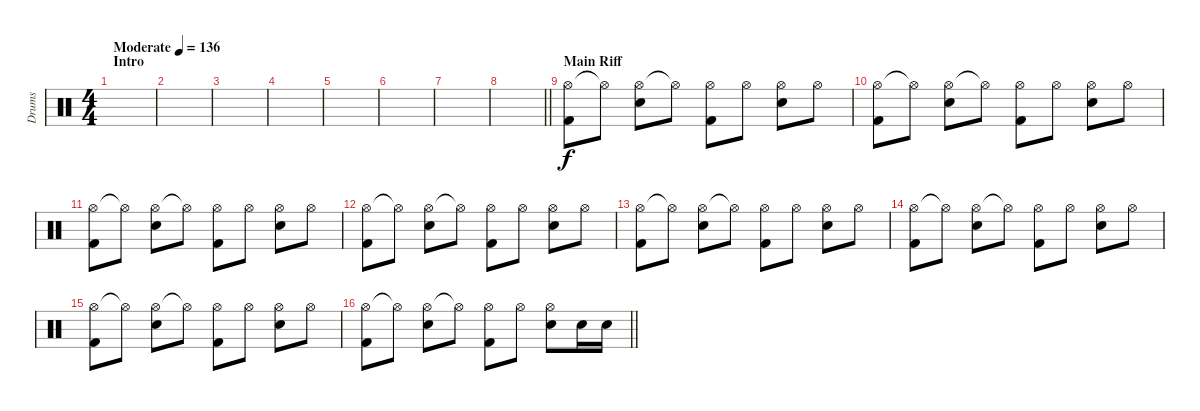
\track ("Drums" "Drums") {instrument percussion}
\staff {score}
\articulation defaults
\ts (4 4)
\section ("" "Intro")
\tempo (136 "Moderate")
\clef neutral
\ks c
|
|
|
|
|
|
|
\barLineRight lightlight
|
\section ("" "Main Riff")
("Hi-Hat (open)" "Kick (hit) 2").8 "Hi-Hat (open)"{t}.8 ("Hi-Hat (open)" "Electric Snare (hit)").8 "Hi-Hat (open)"{t}.8 ("Hi-Hat (open)" "Kick (hit) 2").8 "Hi-Hat (open)".8 ("Hi-Hat (open)" "Electric Snare (hit)").8 "Hi-Hat (open)".8 |
("Hi-Hat (open)" "Kick (hit) 2").8 "Hi-Hat (open)"{t}.8 ("Hi-Hat (open)" "Electric Snare (hit)").8 "Hi-Hat (open)"{t}.8 ("Hi-Hat (open)" "Kick (hit) 2").8 "Hi-Hat (open)".8 ("Hi-Hat (open)" "Electric Snare (hit)").8 "Hi-Hat (open)".8 |
("Hi-Hat (open)" "Kick (hit) 2").8 "Hi-Hat (open)"{t}.8 ("Hi-Hat (open)" "Electric Snare (hit)").8 "Hi-Hat (open)"{t}.8 ("Hi-Hat (open)" "Kick (hit) 2").8 "Hi-Hat (open)".8 ("Hi-Hat (open)" "Electric Snare (hit)").8 "Hi-Hat (open)".8 |
("Hi-Hat (open)" "Kick (hit) 2").8 "Hi-Hat (open)"{t}.8 ("Hi-Hat (open)" "Electric Snare (hit)").8 "Hi-Hat (open)"{t}.8 ("Hi-Hat (open)" "Kick (hit) 2").8 "Hi-Hat (open)".8 ("Hi-Hat (open)" "Electric Snare (hit)").8 "Hi-Hat (open)".8 |
("Hi-Hat (open)" "Kick (hit) 2").8 "Hi-Hat (open)"{t}.8 ("Hi-Hat (open)" "Electric Snare (hit)").8 "Hi-Hat (open)"{t}.8 ("Hi-Hat (open)" "Kick (hit) 2").8 "Hi-Hat (open)".8 ("Hi-Hat (open)" "Electric Snare (hit)").8 "Hi-Hat (open)".8 |
("Hi-Hat (open)" "Kick (hit) 2").8 "Hi-Hat (open)"{t}.8 ("Hi-Hat (open)" "Electric Snare (hit)").8 "Hi-Hat (open)"{t}.8 ("Hi-Hat (open)" "Kick (hit) 2").8 "Hi-Hat (open)".8 ("Hi-Hat (open)" "Electric Snare (hit)").8 "Hi-Hat (open)".8 |
("Hi-Hat (open)" "Kick (hit) 2").8 "Hi-Hat (open)"{t}.8 ("Hi-Hat (open)" "Electric Snare (hit)").8 "Hi-Hat (open)"{t}.8 ("Hi-Hat (open)" "Kick (hit) 2").8 "Hi-Hat (open)".8 ("Hi-Hat (open)" "Electric Snare (hit)").8 "Hi-Hat (open)".8 |
\barLineRight lightlight
("Hi-Hat (open)" "Kick (hit) 2").8 "Hi-Hat (open)"{t}.8 ("Hi-Hat (open)" "Electric Snare (hit)").8 "Hi-Hat (open)"{t}.8 ("Hi-Hat (open)" "Kick (hit) 2").8 "Hi-Hat (open)".8 ("Hi-Hat (open)" "Electric Snare (hit)").8 "Electric Snare (hit)".16 "Electric Snare (hit)".16
